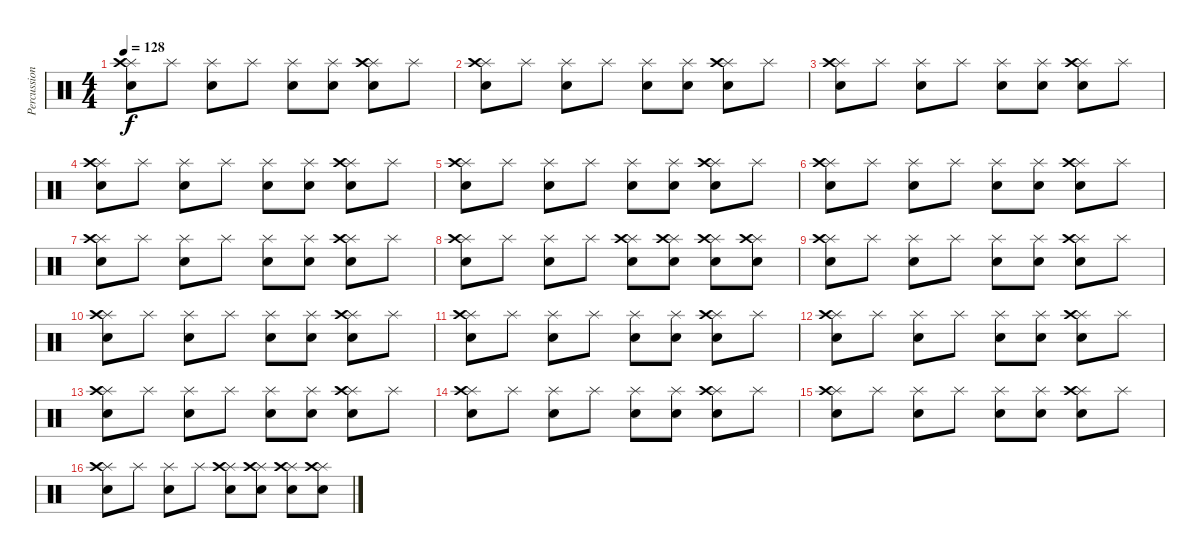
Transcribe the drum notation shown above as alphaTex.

\track ("Percussions" "Percussion") {instrument percussion}
\staff {score}
\articulation defaults
\ts (4 4)
\tempo 128
\clef neutral
\ks c
("Splash (hit)" "Snare (hit) 2" "Crash high (hit)").8{dy f} "Splash (hit)".8 ("Splash (hit)" "Electric Snare (hit)").8 "Splash (hit)".8 ("Splash (hit)" "Snare (hit) 2").8 ("Splash (hit)" "Snare (hit) 2").8 ("Splash (hit)" "Electric Snare (hit)" "Crash high (hit)").8 "Splash (hit)".8 |
("Splash (hit)" "Snare (hit) 2" "Crash high (hit)").8 "Splash (hit)".8 ("Splash (hit)" "Electric Snare (hit)").8 "Splash (hit)".8 ("Splash (hit)" "Snare (hit) 2").8 ("Splash (hit)" "Snare (hit) 2").8 ("Splash (hit)" "Electric Snare (hit)" "Crash high (hit)").8 "Splash (hit)".8 |
("Splash (hit)" "Snare (hit) 2" "Crash high (hit)").8 "Splash (hit)".8 ("Splash (hit)" "Electric Snare (hit)").8 "Splash (hit)".8 ("Splash (hit)" "Snare (hit) 2").8 ("Splash (hit)" "Snare (hit) 2").8 ("Splash (hit)" "Electric Snare (hit)" "Crash high (hit)").8 "Splash (hit)".8 |
("Splash (hit)" "Snare (hit) 2" "Crash high (hit)").8 "Splash (hit)".8 ("Splash (hit)" "Electric Snare (hit)").8 "Splash (hit)".8 ("Splash (hit)" "Snare (hit) 2").8 ("Splash (hit)" "Snare (hit) 2").8 ("Splash (hit)" "Electric Snare (hit)" "Crash high (hit)").8 "Splash (hit)".8 |
("Splash (hit)" "Snare (hit) 2" "Crash high (hit)").8 "Splash (hit)".8 ("Splash (hit)" "Electric Snare (hit)").8 "Splash (hit)".8 ("Splash (hit)" "Snare (hit) 2").8 ("Splash (hit)" "Snare (hit) 2").8 ("Splash (hit)" "Electric Snare (hit)" "Crash high (hit)").8 "Splash (hit)".8 |
("Splash (hit)" "Snare (hit) 2" "Crash high (hit)").8 "Splash (hit)".8 ("Splash (hit)" "Electric Snare (hit)").8 "Splash (hit)".8 ("Splash (hit)" "Snare (hit) 2").8 ("Splash (hit)" "Snare (hit) 2").8 ("Splash (hit)" "Electric Snare (hit)" "Crash high (hit)").8 "Splash (hit)".8 |
("Splash (hit)" "Snare (hit) 2" "Crash high (hit)").8 "Splash (hit)".8 ("Splash (hit)" "Electric Snare (hit)").8 "Splash (hit)".8 ("Splash (hit)" "Snare (hit) 2").8 ("Splash (hit)" "Snare (hit) 2").8 ("Splash (hit)" "Electric Snare (hit)" "Crash high (hit)").8 "Splash (hit)".8 |
("Splash (hit)" "Snare (hit) 2" "Crash high (hit)").8 "Splash (hit)".8 ("Splash (hit)" "Electric Snare (hit)").8 "Splash (hit)".8 ("Splash (hit)" "Snare (hit) 2" "Crash high (hit)").8 ("Splash (hit)" "Snare (hit) 2" "Crash high (hit)").8 ("Splash (hit)" "Snare (hit) 2" "Crash high (hit)").8 ("Splash (hit)" "Crash high (hit)" "Electric Snare (hit)").8 |
("Splash (hit)" "Snare (hit) 2" "Crash high (hit)").8 "Splash (hit)".8 ("Splash (hit)" "Electric Snare (hit)").8 "Splash (hit)".8 ("Splash (hit)" "Snare (hit) 2").8 ("Splash (hit)" "Snare (hit) 2").8 ("Splash (hit)" "Electric Snare (hit)" "Crash high (hit)").8 "Splash (hit)".8 |
("Splash (hit)" "Snare (hit) 2" "Crash high (hit)").8 "Splash (hit)".8 ("Splash (hit)" "Electric Snare (hit)").8 "Splash (hit)".8 ("Splash (hit)" "Snare (hit) 2").8 ("Splash (hit)" "Snare (hit) 2").8 ("Splash (hit)" "Electric Snare (hit)" "Crash high (hit)").8 "Splash (hit)".8 |
("Splash (hit)" "Snare (hit) 2" "Crash high (hit)").8 "Splash (hit)".8 ("Splash (hit)" "Electric Snare (hit)").8 "Splash (hit)".8 ("Splash (hit)" "Snare (hit) 2").8 ("Splash (hit)" "Snare (hit) 2").8 ("Splash (hit)" "Electric Snare (hit)" "Crash high (hit)").8 "Splash (hit)".8 |
("Splash (hit)" "Snare (hit) 2" "Crash high (hit)").8 "Splash (hit)".8 ("Splash (hit)" "Electric Snare (hit)").8 "Splash (hit)".8 ("Splash (hit)" "Snare (hit) 2").8 ("Splash (hit)" "Snare (hit) 2").8 ("Splash (hit)" "Electric Snare (hit)" "Crash high (hit)").8 "Splash (hit)".8 |
("Splash (hit)" "Snare (hit) 2" "Crash high (hit)").8 "Splash (hit)".8 ("Splash (hit)" "Electric Snare (hit)").8 "Splash (hit)".8 ("Splash (hit)" "Snare (hit) 2").8 ("Splash (hit)" "Snare (hit) 2").8 ("Splash (hit)" "Electric Snare (hit)" "Crash high (hit)").8 "Splash (hit)".8 |
("Splash (hit)" "Snare (hit) 2" "Crash high (hit)").8 "Splash (hit)".8 ("Splash (hit)" "Electric Snare (hit)").8 "Splash (hit)".8 ("Splash (hit)" "Snare (hit) 2").8 ("Splash (hit)" "Snare (hit) 2").8 ("Splash (hit)" "Electric Snare (hit)" "Crash high (hit)").8 "Splash (hit)".8 |
("Splash (hit)" "Snare (hit) 2" "Crash high (hit)").8 "Splash (hit)".8 ("Splash (hit)" "Electric Snare (hit)").8 "Splash (hit)".8 ("Splash (hit)" "Snare (hit) 2").8 ("Splash (hit)" "Snare (hit) 2").8 ("Splash (hit)" "Electric Snare (hit)" "Crash high (hit)").8 "Splash (hit)".8 |
("Splash (hit)" "Snare (hit) 2" "Crash high (hit)").8 "Splash (hit)".8 ("Splash (hit)" "Electric Snare (hit)").8 "Splash (hit)".8 ("Splash (hit)" "Snare (hit) 2" "Crash high (hit)").8 ("Splash (hit)" "Snare (hit) 2" "Crash high (hit)").8 ("Splash (hit)" "Snare (hit) 2" "Crash high (hit)").8 ("Splash (hit)" "Crash high (hit)" "Electric Snare (hit)").8
